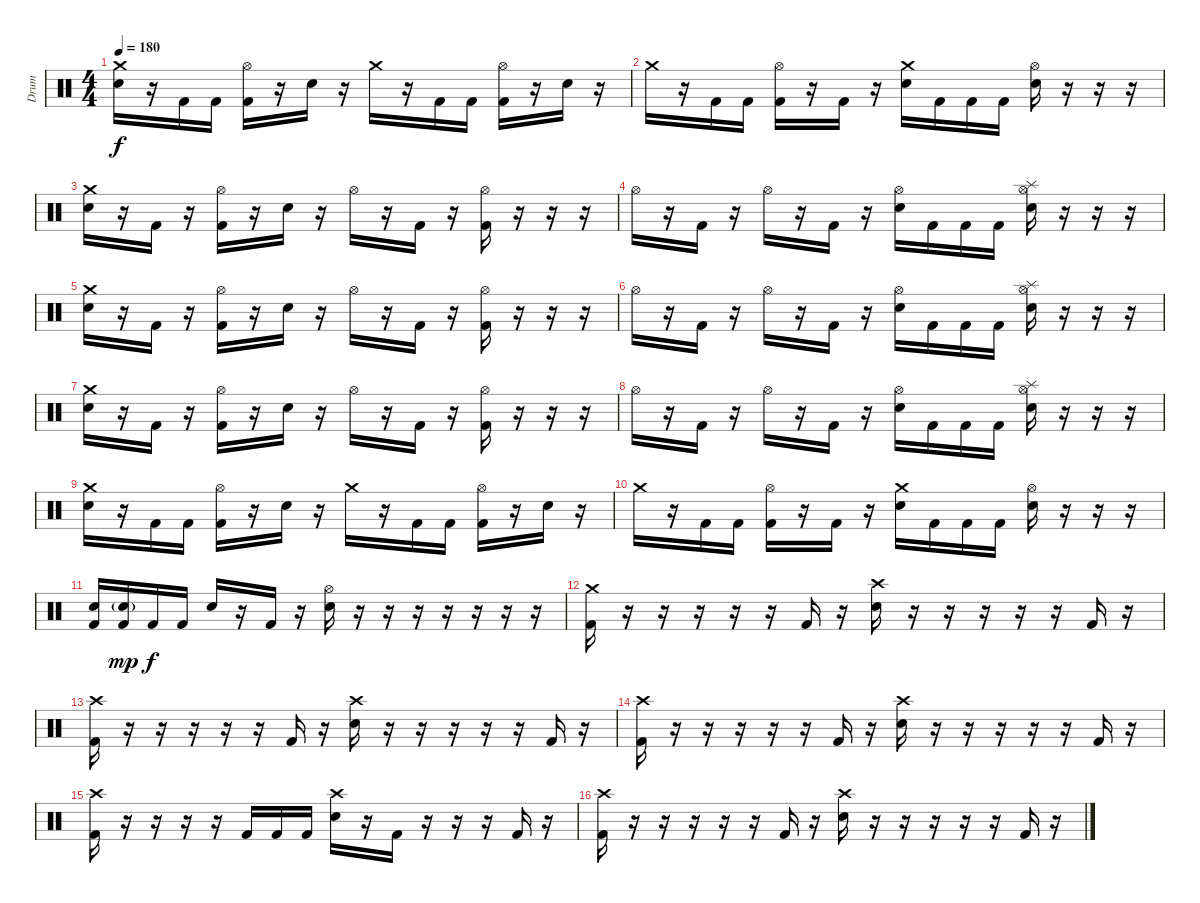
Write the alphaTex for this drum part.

\track ("Drum" "Drum") {instrument percussion}
\staff {score}
\articulation defaults
\ts (4 4)
\tempo 180
\clef neutral
\ks c
("Crash medium (hit)" "Electric Snare (hit)").16{dy f} r.16 "Kick (hit) 2".16 "Kick (hit) 2".16 ("Hi-Hat (open)" "Kick (hit) 2").16 r.16 "Electric Snare (hit)".16 r.16 "Crash medium (hit)".16 r.16 "Kick (hit) 2".16 "Kick (hit) 2".16 ("Hi-Hat (open)" "Kick (hit) 2").16 r.16 "Electric Snare (hit)".16 r.16 |
"Crash medium (hit)".16 r.16 "Kick (hit) 2".16 "Kick (hit) 2".16 ("Hi-Hat (open)" "Kick (hit) 2").16 r.16 "Kick (hit) 2".16 r.16 ("Crash medium (hit)" "Electric Snare (hit)").16 "Kick (hit) 2".16 "Kick (hit) 2".16 "Kick (hit) 2".16 ("Hi-Hat (open)" "Electric Snare (hit)").16 r.16 r.16 r.16 |
("Crash medium (hit)" "Electric Snare (hit)").16 r.16 "Kick (hit) 2".16 r.16 ("Hi-Hat (open)" "Kick (hit) 2").16 r.16 "Electric Snare (hit)".16 r.16 "Hi-Hat (open)".16 r.16 "Kick (hit) 2".16 r.16 ("Hi-Hat (open)" "Kick (hit) 2").16 r.16 r.16 r.16 |
"Hi-Hat (open)".16 r.16 "Kick (hit) 2".16 r.16 "Hi-Hat (open)".16 r.16 "Kick (hit) 2".16 r.16 ("Hi-Hat (open)" "Electric Snare (hit)").16 "Kick (hit) 2".16 "Kick (hit) 2".16 "Kick (hit) 2".16 ("Hi-Hat (open)" "Splash (hit)" "Electric Snare (hit)").16 r.16 r.16 r.16 |
("Crash medium (hit)" "Electric Snare (hit)").16 r.16 "Kick (hit) 2".16 r.16 ("Hi-Hat (open)" "Kick (hit) 2").16 r.16 "Electric Snare (hit)".16 r.16 "Hi-Hat (open)".16 r.16 "Kick (hit) 2".16 r.16 ("Hi-Hat (open)" "Kick (hit) 2").16 r.16 r.16 r.16 |
"Hi-Hat (open)".16 r.16 "Kick (hit) 2".16 r.16 "Hi-Hat (open)".16 r.16 "Kick (hit) 2".16 r.16 ("Hi-Hat (open)" "Electric Snare (hit)").16 "Kick (hit) 2".16 "Kick (hit) 2".16 "Kick (hit) 2".16 ("Hi-Hat (open)" "Splash (hit)" "Electric Snare (hit)").16 r.16 r.16 r.16 |
("Crash medium (hit)" "Electric Snare (hit)").16 r.16 "Kick (hit) 2".16 r.16 ("Hi-Hat (open)" "Kick (hit) 2").16 r.16 "Electric Snare (hit)".16 r.16 "Hi-Hat (open)".16 r.16 "Kick (hit) 2".16 r.16 ("Hi-Hat (open)" "Kick (hit) 2").16 r.16 r.16 r.16 |
"Hi-Hat (open)".16 r.16 "Kick (hit) 2".16 r.16 "Hi-Hat (open)".16 r.16 "Kick (hit) 2".16 r.16 ("Hi-Hat (open)" "Electric Snare (hit)").16 "Kick (hit) 2".16 "Kick (hit) 2".16 "Kick (hit) 2".16 ("Hi-Hat (open)" "Splash (hit)" "Electric Snare (hit)").16 r.16 r.16 r.16 |
("Crash medium (hit)" "Electric Snare (hit)").16 r.16 "Kick (hit) 2".16 "Kick (hit) 2".16 ("Hi-Hat (open)" "Kick (hit) 2").16 r.16 "Electric Snare (hit)".16 r.16 "Crash medium (hit)".16 r.16 "Kick (hit) 2".16 "Kick (hit) 2".16 ("Hi-Hat (open)" "Kick (hit) 2").16 r.16 "Electric Snare (hit)".16 r.16 |
"Crash medium (hit)".16 r.16 "Kick (hit) 2".16 "Kick (hit) 2".16 ("Hi-Hat (open)" "Kick (hit) 2").16 r.16 "Kick (hit) 2".16 r.16 ("Crash medium (hit)" "Electric Snare (hit)").16 "Kick (hit) 2".16 "Kick (hit) 2".16 "Kick (hit) 2".16 ("Hi-Hat (open)" "Electric Snare (hit)").16 r.16 r.16 r.16 |
("Electric Snare (hit)" "Kick (hit) 2").16 ("Electric Snare (hit)"{g} "Kick (hit) 2").16{dy mp} "Kick (hit) 2".16{dy f} "Kick (hit) 2".16 "Electric Snare (hit)".16 r.16 "Kick (hit) 2".16 r.16 ("Electric Snare (hit)" "Hi-Hat (open)").16 r.16 r.16 r.16 r.16 r.16 r.16 r.16 |
("Crash medium (hit)" "Kick (hit) 2").16 r.16 r.16 r.16 r.16 r.16 "Kick (hit) 2".16 r.16 ("Crash high (hit)" "Electric Snare (hit)").16 r.16 r.16 r.16 r.16 r.16 "Kick (hit) 2".16 r.16 |
("Crash high (hit)" "Kick (hit) 2").16 r.16 r.16 r.16 r.16 r.16 "Kick (hit) 2".16 r.16 ("Crash high (hit)" "Electric Snare (hit)").16 r.16 r.16 r.16 r.16 r.16 "Kick (hit) 2".16 r.16 |
("Crash high (hit)" "Kick (hit) 2").16 r.16 r.16 r.16 r.16 r.16 "Kick (hit) 2".16 r.16 ("Crash high (hit)" "Electric Snare (hit)").16 r.16 r.16 r.16 r.16 r.16 "Kick (hit) 2".16 r.16 |
("Crash high (hit)" "Kick (hit) 2").16 r.16 r.16 r.16 r.16 "Kick (hit) 2".16 "Kick (hit) 2".16 "Kick (hit) 2".16 ("Crash high (hit)" "Electric Snare (hit)").16 r.16 "Kick (hit) 2".16 r.16 r.16 r.16 "Kick (hit) 2".16 r.16 |
("Crash high (hit)" "Kick (hit) 2").16 r.16 r.16 r.16 r.16 r.16 "Kick (hit) 2".16 r.16 ("Crash high (hit)" "Electric Snare (hit)").16 r.16 r.16 r.16 r.16 r.16 "Kick (hit) 2".16 r.16
